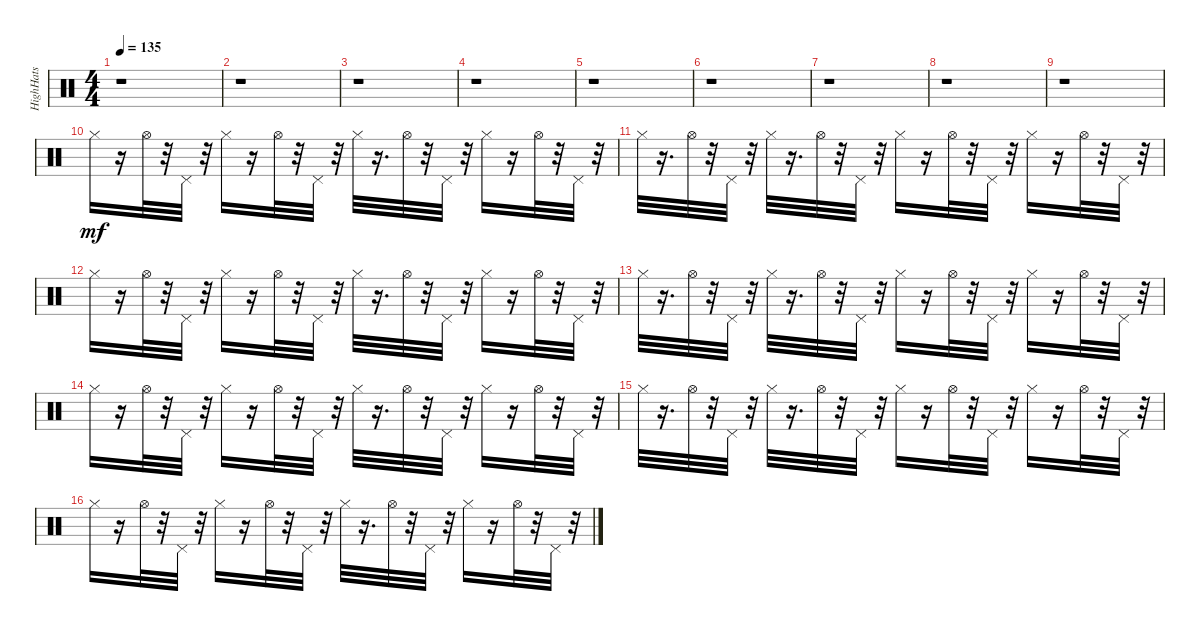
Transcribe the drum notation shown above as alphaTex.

\track ("HighHats" "HighHats") {instrument percussion}
\staff {score}
\articulation defaults
\ts (4 4)
\tempo 135
\clef neutral
\ks c
r.1{dy mf} |
r.1 |
r.1 |
r.1 |
r.1 |
r.1 |
r.1 |
r.1 |
r.1 |
"Hi-Hat (closed)".16 r.16 "Hi-Hat (open)".32 r.32 "Pedal Hi-Hat (hit)".32 r.32 "Hi-Hat (closed)".16 r.16 "Hi-Hat (open)".32 r.32 "Pedal Hi-Hat (hit)".32 r.32 "Hi-Hat (closed)".32 r.16{d} "Hi-Hat (open)".32 r.32 "Pedal Hi-Hat (hit)".32 r.32 "Hi-Hat (closed)".16 r.16 "Hi-Hat (open)".32 r.32 "Pedal Hi-Hat (hit)".32 r.32 |
"Hi-Hat (closed)".32 r.16{d} "Hi-Hat (open)".32 r.32 "Pedal Hi-Hat (hit)".32 r.32 "Hi-Hat (closed)".32 r.16{d} "Hi-Hat (open)".32 r.32 "Pedal Hi-Hat (hit)".32 r.32 "Hi-Hat (closed)".16 r.16 "Hi-Hat (open)".32 r.32 "Pedal Hi-Hat (hit)".32 r.32 "Hi-Hat (closed)".16 r.16 "Hi-Hat (open)".32 r.32 "Pedal Hi-Hat (hit)".32 r.32 |
"Hi-Hat (closed)".16 r.16 "Hi-Hat (open)".32 r.32 "Pedal Hi-Hat (hit)".32 r.32 "Hi-Hat (closed)".16 r.16 "Hi-Hat (open)".32 r.32 "Pedal Hi-Hat (hit)".32 r.32 "Hi-Hat (closed)".32 r.16{d} "Hi-Hat (open)".32 r.32 "Pedal Hi-Hat (hit)".32 r.32 "Hi-Hat (closed)".16 r.16 "Hi-Hat (open)".32 r.32 "Pedal Hi-Hat (hit)".32 r.32 |
"Hi-Hat (closed)".32 r.16{d} "Hi-Hat (open)".32 r.32 "Pedal Hi-Hat (hit)".32 r.32 "Hi-Hat (closed)".32 r.16{d} "Hi-Hat (open)".32 r.32 "Pedal Hi-Hat (hit)".32 r.32 "Hi-Hat (closed)".16 r.16 "Hi-Hat (open)".32 r.32 "Pedal Hi-Hat (hit)".32 r.32 "Hi-Hat (closed)".16 r.16 "Hi-Hat (open)".32 r.32 "Pedal Hi-Hat (hit)".32 r.32 |
"Hi-Hat (closed)".16 r.16 "Hi-Hat (open)".32 r.32 "Pedal Hi-Hat (hit)".32 r.32 "Hi-Hat (closed)".16 r.16 "Hi-Hat (open)".32 r.32 "Pedal Hi-Hat (hit)".32 r.32 "Hi-Hat (closed)".32 r.16{d} "Hi-Hat (open)".32 r.32 "Pedal Hi-Hat (hit)".32 r.32 "Hi-Hat (closed)".16 r.16 "Hi-Hat (open)".32 r.32 "Pedal Hi-Hat (hit)".32 r.32 |
"Hi-Hat (closed)".32 r.16{d} "Hi-Hat (open)".32 r.32 "Pedal Hi-Hat (hit)".32 r.32 "Hi-Hat (closed)".32 r.16{d} "Hi-Hat (open)".32 r.32 "Pedal Hi-Hat (hit)".32 r.32 "Hi-Hat (closed)".16 r.16 "Hi-Hat (open)".32 r.32 "Pedal Hi-Hat (hit)".32 r.32 "Hi-Hat (closed)".16 r.16 "Hi-Hat (open)".32 r.32 "Pedal Hi-Hat (hit)".32 r.32 |
"Hi-Hat (closed)".16 r.16 "Hi-Hat (open)".32 r.32 "Pedal Hi-Hat (hit)".32 r.32 "Hi-Hat (closed)".16 r.16 "Hi-Hat (open)".32 r.32 "Pedal Hi-Hat (hit)".32 r.32 "Hi-Hat (closed)".32 r.16{d} "Hi-Hat (open)".32 r.32 "Pedal Hi-Hat (hit)".32 r.32 "Hi-Hat (closed)".16 r.16 "Hi-Hat (open)".32 r.32 "Pedal Hi-Hat (hit)".32 r.32
